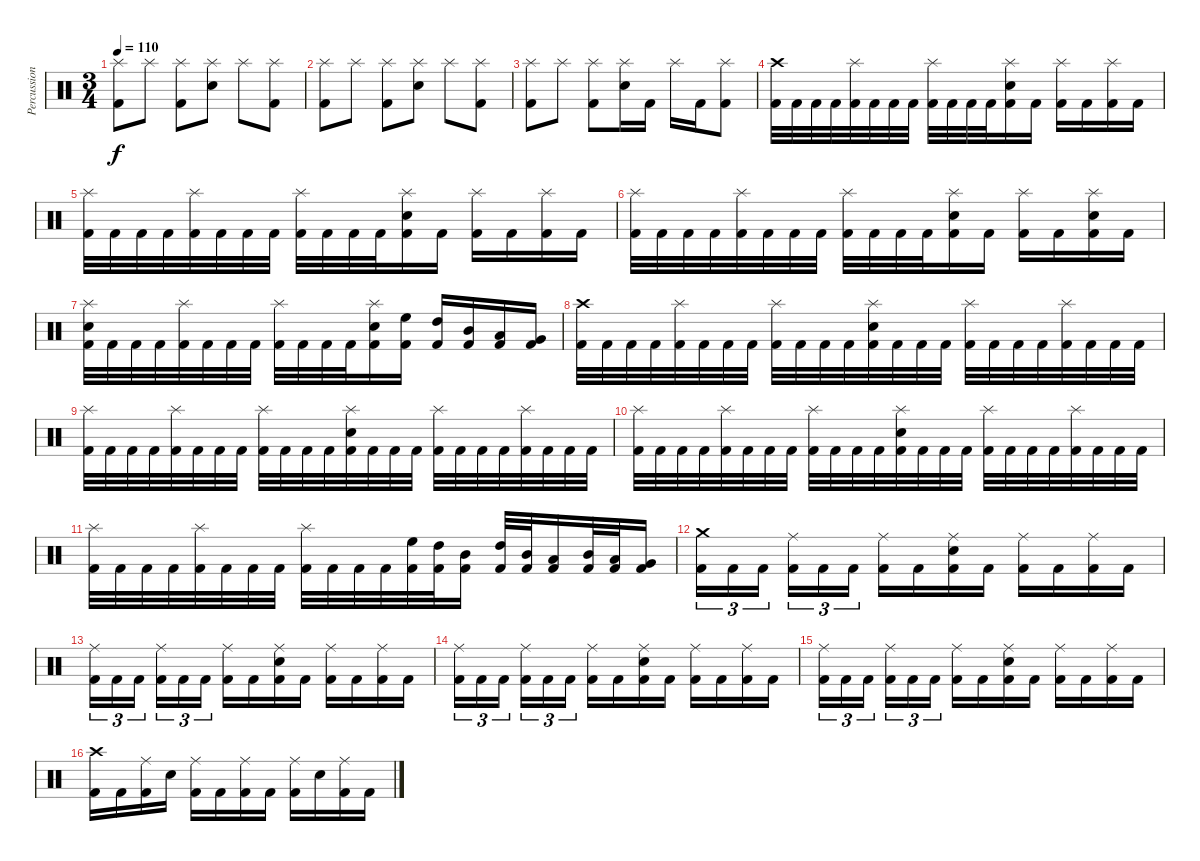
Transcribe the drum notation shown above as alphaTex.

\track ("Percussion" "Percussion") {instrument percussion}
\staff {score}
\articulation defaults
\ts (3 4)
\tempo 110
\clef neutral
\ks c
("Splash (hit)" "Kick (hit) 2").8{dy f} "Splash (hit)".8 ("Splash (hit)" "Kick (hit) 2").8 ("Splash (hit)" "Electric Snare (hit)").8 "Splash (hit)".8 ("Splash (hit)" "Kick (hit) 2").8 |
("Splash (hit)" "Kick (hit) 2").8 "Splash (hit)".8 ("Splash (hit)" "Kick (hit) 2").8 ("Splash (hit)" "Electric Snare (hit)").8 "Splash (hit)".8 ("Splash (hit)" "Kick (hit) 2").8 |
("Splash (hit)" "Kick (hit) 2").8 "Splash (hit)".8 ("Splash (hit)" "Kick (hit) 2").8 ("Splash (hit)" "Electric Snare (hit)").16 "Kick (hit) 2".16 "Splash (hit)".16 "Kick (hit) 2".16 ("Splash (hit)" "Kick (hit) 2").8 |
("Crash high (hit)" "Kick (hit) 2").32 "Kick (hit) 2".32 "Kick (hit) 2".32 "Kick (hit) 2".32 ("Splash (hit)" "Kick (hit) 2").32 "Kick (hit) 2".32 "Kick (hit) 2".32 "Kick (hit) 2".32 ("Splash (hit)" "Kick (hit) 2").32 "Kick (hit) 2".32 "Kick (hit) 2".32 "Kick (hit) 2".32 ("Splash (hit)" "Electric Snare (hit)" "Kick (hit) 2").16 "Kick (hit) 2".16 ("Splash (hit)" "Kick (hit) 2").16 "Kick (hit) 2".16 ("Splash (hit)" "Kick (hit) 2").16 "Kick (hit) 2".16 |
("Splash (hit)" "Kick (hit) 2").32 "Kick (hit) 2".32 "Kick (hit) 2".32 "Kick (hit) 2".32 ("Splash (hit)" "Kick (hit) 2").32 "Kick (hit) 2".32 "Kick (hit) 2".32 "Kick (hit) 2".32 ("Splash (hit)" "Kick (hit) 2").32 "Kick (hit) 2".32 "Kick (hit) 2".32 "Kick (hit) 2".32 ("Splash (hit)" "Electric Snare (hit)" "Kick (hit) 2").16 "Kick (hit) 2".16 ("Splash (hit)" "Kick (hit) 2").16 "Kick (hit) 2".16 ("Splash (hit)" "Kick (hit) 2").16 "Kick (hit) 2".16 |
("Splash (hit)" "Kick (hit) 2").32 "Kick (hit) 2".32 "Kick (hit) 2".32 "Kick (hit) 2".32 ("Splash (hit)" "Kick (hit) 2").32 "Kick (hit) 2".32 "Kick (hit) 2".32 "Kick (hit) 2".32 ("Splash (hit)" "Kick (hit) 2").32 "Kick (hit) 2".32 "Kick (hit) 2".32 "Kick (hit) 2".32 ("Splash (hit)" "Electric Snare (hit)" "Kick (hit) 2").16 "Kick (hit) 2".16 ("Splash (hit)" "Kick (hit) 2").16 "Kick (hit) 2".16 ("Splash (hit)" "Electric Snare (hit)" "Kick (hit) 2").16 "Kick (hit) 2".16 |
("Splash (hit)" "Electric Snare (hit)" "Kick (hit) 2").32 "Kick (hit) 2".32 "Kick (hit) 2".32 "Kick (hit) 2".32 ("Splash (hit)" "Kick (hit) 2").32 "Kick (hit) 2".32 "Kick (hit) 2".32 "Kick (hit) 2".32 ("Splash (hit)" "Kick (hit) 2").32 "Kick (hit) 2".32 "Kick (hit) 2".32 "Kick (hit) 2".32 ("Splash (hit)" "Electric Snare (hit)" "Kick (hit) 2").16 ("High Floor Tom (hit)" "Kick (hit) 2").16 ("High Tom (hit)" "Kick (hit) 2").16 ("Mid Tom (hit)" "Kick (hit) 2").16 ("Low Tom (hit)" "Kick (hit) 2").16 ("Very Low Tom (hit)" "Kick (hit) 2").16 |
("Crash high (hit)" "Kick (hit) 2").32 "Kick (hit) 2".32 "Kick (hit) 2".32 "Kick (hit) 2".32 ("Splash (hit)" "Kick (hit) 2").32 "Kick (hit) 2".32 "Kick (hit) 2".32 "Kick (hit) 2".32 ("Splash (hit)" "Kick (hit) 2").32 "Kick (hit) 2".32 "Kick (hit) 2".32 "Kick (hit) 2".32 ("Splash (hit)" "Electric Snare (hit)" "Kick (hit) 2").32 "Kick (hit) 2".32 "Kick (hit) 2".32 "Kick (hit) 2".32 ("Splash (hit)" "Kick (hit) 2").32 "Kick (hit) 2".32 "Kick (hit) 2".32 "Kick (hit) 2".32 ("Splash (hit)" "Kick (hit) 2").32 "Kick (hit) 2".32 "Kick (hit) 2".32 "Kick (hit) 2".32 |
("Splash (hit)" "Kick (hit) 2").32 "Kick (hit) 2".32 "Kick (hit) 2".32 "Kick (hit) 2".32 ("Splash (hit)" "Kick (hit) 2").32 "Kick (hit) 2".32 "Kick (hit) 2".32 "Kick (hit) 2".32 ("Splash (hit)" "Kick (hit) 2").32 "Kick (hit) 2".32 "Kick (hit) 2".32 "Kick (hit) 2".32 ("Splash (hit)" "Electric Snare (hit)" "Kick (hit) 2").32 "Kick (hit) 2".32 "Kick (hit) 2".32 "Kick (hit) 2".32 ("Splash (hit)" "Kick (hit) 2").32 "Kick (hit) 2".32 "Kick (hit) 2".32 "Kick (hit) 2".32 ("Splash (hit)" "Kick (hit) 2").32 "Kick (hit) 2".32 "Kick (hit) 2".32 "Kick (hit) 2".32 |
("Splash (hit)" "Kick (hit) 2").32 "Kick (hit) 2".32 "Kick (hit) 2".32 "Kick (hit) 2".32 ("Splash (hit)" "Kick (hit) 2").32 "Kick (hit) 2".32 "Kick (hit) 2".32 "Kick (hit) 2".32 ("Splash (hit)" "Kick (hit) 2").32 "Kick (hit) 2".32 "Kick (hit) 2".32 "Kick (hit) 2".32 ("Splash (hit)" "Electric Snare (hit)" "Kick (hit) 2").32 "Kick (hit) 2".32 "Kick (hit) 2".32 "Kick (hit) 2".32 ("Splash (hit)" "Kick (hit) 2").32 "Kick (hit) 2".32 "Kick (hit) 2".32 "Kick (hit) 2".32 ("Splash (hit)" "Kick (hit) 2").32 "Kick (hit) 2".32 "Kick (hit) 2".32 "Kick (hit) 2".32 |
("Splash (hit)" "Kick (hit) 2").32 "Kick (hit) 2".32 "Kick (hit) 2".32 "Kick (hit) 2".32 ("Splash (hit)" "Kick (hit) 2").32 "Kick (hit) 2".32 "Kick (hit) 2".32 "Kick (hit) 2".32 ("Splash (hit)" "Kick (hit) 2").32 "Kick (hit) 2".32 "Kick (hit) 2".32 "Kick (hit) 2".32 ("High Floor Tom (hit)" "Kick (hit) 2").32 ("High Tom (hit)" "Kick (hit) 2").32 ("Mid Tom (hit)" "Kick (hit) 2").16 ("High Tom (hit)" "Kick (hit) 2").32 ("Mid Tom (hit)" "Kick (hit) 2").32 ("Low Tom (hit)" "Kick (hit) 2").16 ("Mid Tom (hit)" "Kick (hit) 2").32 ("Low Tom (hit)" "Kick (hit) 2").32 ("Very Low Tom (hit)" "Kick (hit) 2").16 |
("Crash medium (hit)" "Kick (hit) 2").16{tu (3 2)} "Kick (hit) 2".16{tu (3 2)} "Kick (hit) 2".16{tu (3 2)} ("Ride (middle)" "Kick (hit) 2").16{tu (3 2)} "Kick (hit) 2".16{tu (3 2)} "Kick (hit) 2".16{tu (3 2)} ("Ride (middle)" "Kick (hit) 2").16 "Kick (hit) 2".16 ("Ride (middle)" "Electric Snare (hit)" "Kick (hit) 2").16 "Kick (hit) 2".16 ("Ride (middle)" "Kick (hit) 2").16 "Kick (hit) 2".16 ("Ride (middle)" "Kick (hit) 2").16 "Kick (hit) 2".16 |
("Ride (middle)" "Kick (hit) 2").16{tu (3 2)} "Kick (hit) 2".16{tu (3 2)} "Kick (hit) 2".16{tu (3 2)} ("Ride (middle)" "Kick (hit) 2").16{tu (3 2)} "Kick (hit) 2".16{tu (3 2)} "Kick (hit) 2".16{tu (3 2)} ("Ride (middle)" "Kick (hit) 2").16 "Kick (hit) 2".16 ("Ride (middle)" "Electric Snare (hit)" "Kick (hit) 2").16 "Kick (hit) 2".16 ("Ride (middle)" "Kick (hit) 2").16 "Kick (hit) 2".16 ("Ride (middle)" "Kick (hit) 2").16 "Kick (hit) 2".16 |
("Ride (middle)" "Kick (hit) 2").16{tu (3 2)} "Kick (hit) 2".16{tu (3 2)} "Kick (hit) 2".16{tu (3 2)} ("Ride (middle)" "Kick (hit) 2").16{tu (3 2)} "Kick (hit) 2".16{tu (3 2)} "Kick (hit) 2".16{tu (3 2)} ("Ride (middle)" "Kick (hit) 2").16 "Kick (hit) 2".16 ("Ride (middle)" "Electric Snare (hit)" "Kick (hit) 2").16 "Kick (hit) 2".16 ("Ride (middle)" "Kick (hit) 2").16 "Kick (hit) 2".16 ("Ride (middle)" "Kick (hit) 2").16 "Kick (hit) 2".16 |
("Ride (middle)" "Kick (hit) 2").16{tu (3 2)} "Kick (hit) 2".16{tu (3 2)} "Kick (hit) 2".16{tu (3 2)} ("Ride (middle)" "Kick (hit) 2").16{tu (3 2)} "Kick (hit) 2".16{tu (3 2)} "Kick (hit) 2".16{tu (3 2)} ("Ride (middle)" "Kick (hit) 2").16 "Kick (hit) 2".16 ("Ride (middle)" "Electric Snare (hit)" "Kick (hit) 2").16 "Kick (hit) 2".16 ("Ride (middle)" "Kick (hit) 2").16 "Kick (hit) 2".16 ("Ride (middle)" "Kick (hit) 2").16 "Kick (hit) 2".16 |
("Crash high (hit)" "Kick (hit) 2").16 "Kick (hit) 2".16 ("Ride (middle)" "Kick (hit) 2").16 "Electric Snare (hit)".16 ("Ride (middle)" "Kick (hit) 2").16 "Kick (hit) 2".16 ("Ride (middle)" "Kick (hit) 2").16 "Kick (hit) 2".16 ("Ride (middle)" "Kick (hit) 2").16 "Electric Snare (hit)".16 ("Ride (middle)" "Kick (hit) 2").16 "Kick (hit) 2".16
